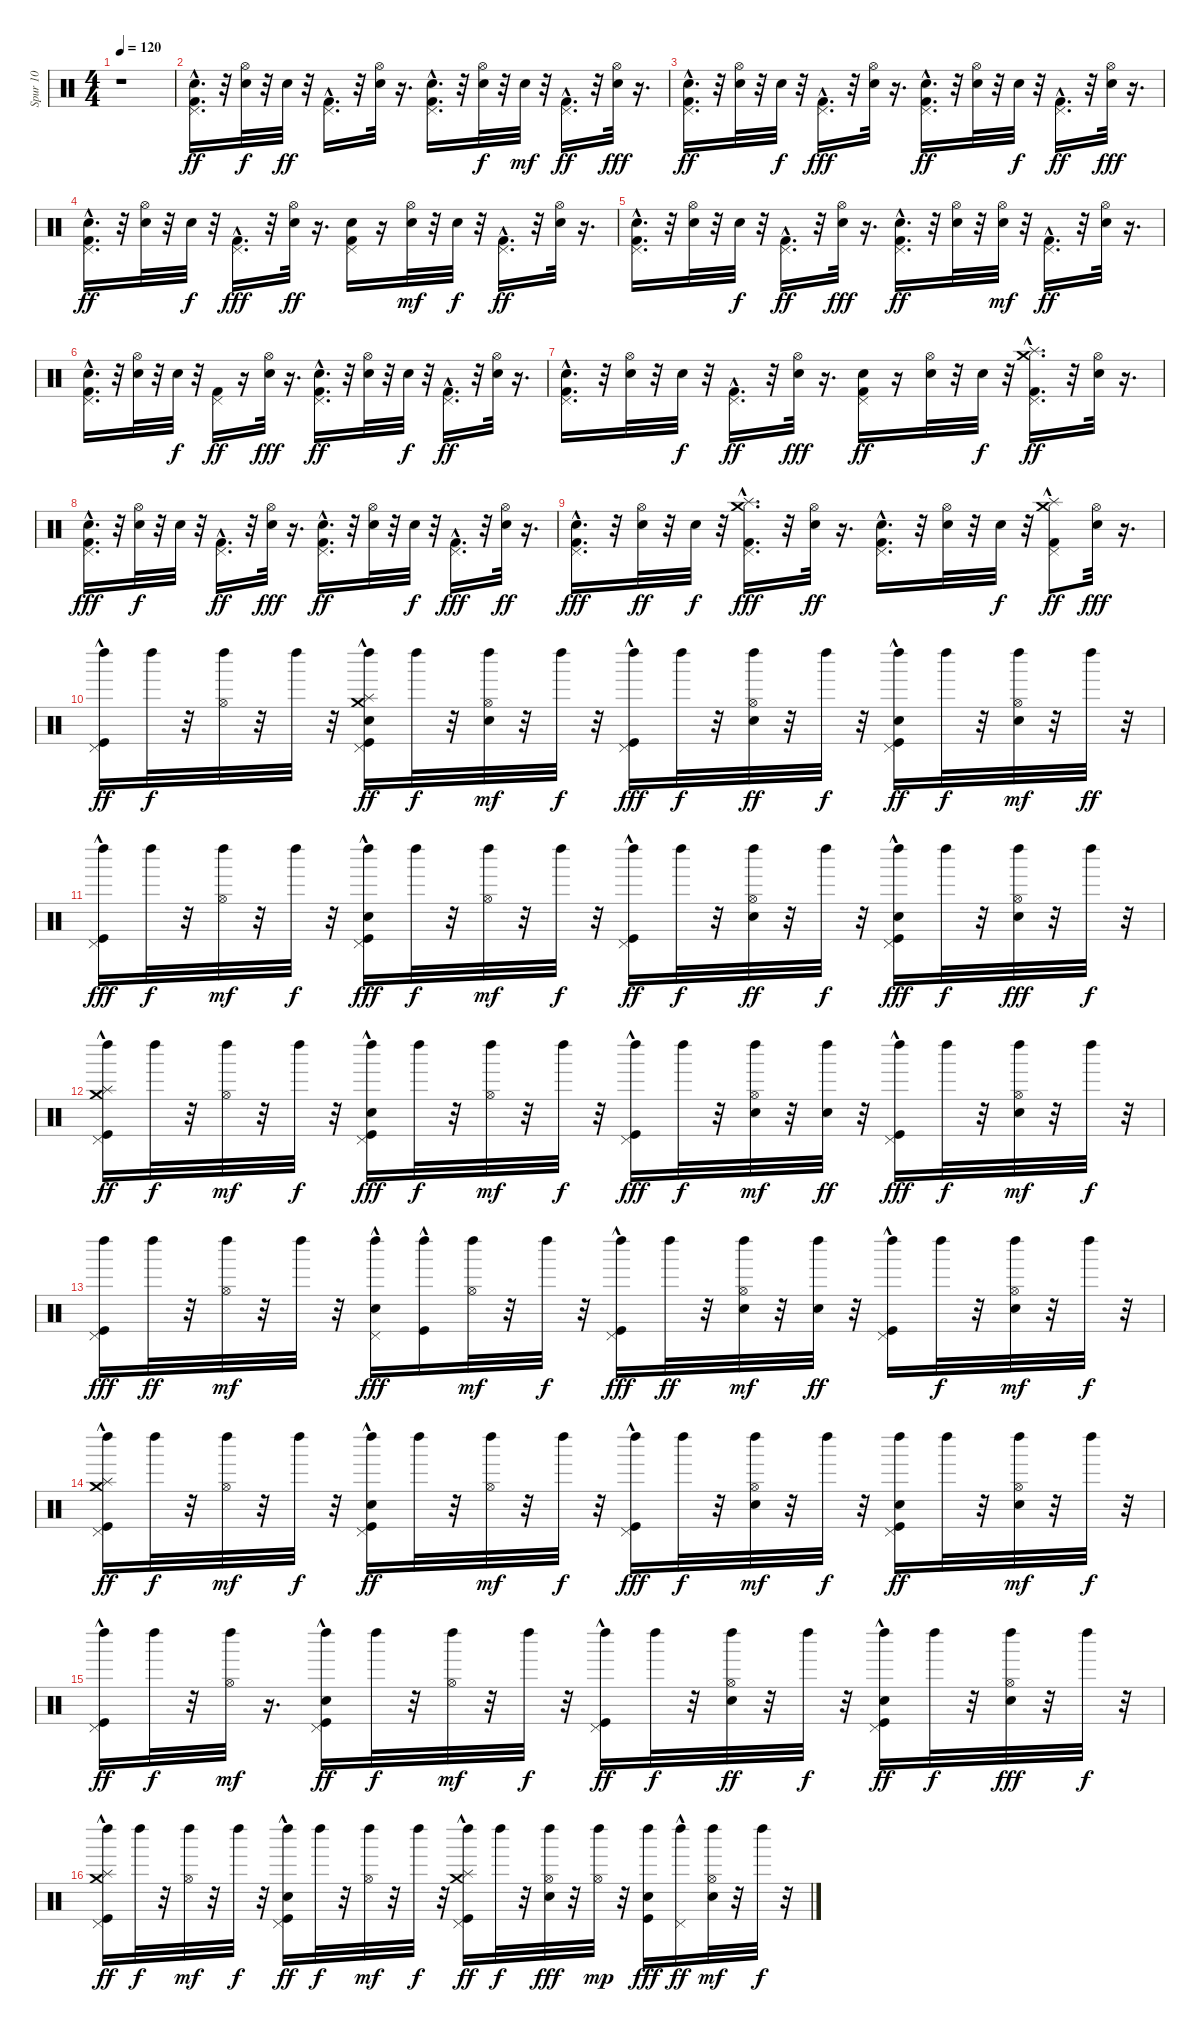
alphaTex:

\track ("Spur 10" "Spur 10") {instrument percussion}
\staff {score}
\articulation defaults
\ts (4 4)
\tempo 120
\clef neutral
\ks c
r.1{dy ff} |
("Electric Snare (hit)" "Kick (hit) 2" "Pedal Hi-Hat (hit)"{hac}).16{d} r.32 ("Electric Snare (hit)" "Hi-Hat (open)").32{dy f} r.32 "Electric Snare (hit)".32{dy ff} r.32 ("Kick (hit) 2"{hac} "Pedal Hi-Hat (hit)"{hac}).16{d} r.32 ("Electric Snare (hit)" "Hi-Hat (open)").32 r.16{d} ("Electric Snare (hit)" "Kick (hit) 2" "Pedal Hi-Hat (hit)"{hac}).16{d} r.32 ("Electric Snare (hit)" "Hi-Hat (open)").32{dy f} r.32 "Electric Snare (hit)".32{dy mf} r.32 ("Kick (hit) 2"{hac} "Pedal Hi-Hat (hit)"{hac}).16{d dy ff} r.32 ("Electric Snare (hit)" "Hi-Hat (open)").32{dy fff} r.16{d} |
("Kick (hit) 2" "Electric Snare (hit)" "Pedal Hi-Hat (hit)"{hac}).16{d dy ff} r.32 ("Electric Snare (hit)" "Hi-Hat (open)").32 r.32 "Electric Snare (hit)".32{dy f} r.32 ("Kick (hit) 2"{hac} "Pedal Hi-Hat (hit)"{hac}).16{d dy fff} r.32 ("Electric Snare (hit)" "Hi-Hat (open)").32 r.16{d} ("Kick (hit) 2" "Electric Snare (hit)" "Pedal Hi-Hat (hit)"{hac}).16{d dy ff} r.32 ("Electric Snare (hit)" "Hi-Hat (open)").32 r.32 "Electric Snare (hit)".32{dy f} r.32 ("Kick (hit) 2"{hac} "Pedal Hi-Hat (hit)"{hac}).16{d dy ff} r.32 ("Electric Snare (hit)" "Hi-Hat (open)").32{dy fff} r.16{d} |
("Electric Snare (hit)" "Kick (hit) 2" "Pedal Hi-Hat (hit)"{hac}).16{d dy ff} r.32 ("Electric Snare (hit)" "Hi-Hat (open)").32 r.32 "Electric Snare (hit)".32{dy f} r.32 ("Kick (hit) 2"{hac} "Pedal Hi-Hat (hit)"{hac}).16{d dy fff} r.32 ("Electric Snare (hit)" "Hi-Hat (open)").32{dy ff} r.16{d} ("Electric Snare (hit)" "Kick (hit) 2" "Pedal Hi-Hat (hit)").16 r.16 ("Electric Snare (hit)" "Hi-Hat (open)").32{dy mf} r.32 "Electric Snare (hit)".32{dy f} r.32 ("Kick (hit) 2"{hac} "Pedal Hi-Hat (hit)"{hac}).16{d dy ff} r.32 ("Electric Snare (hit)" "Hi-Hat (open)").32 r.16{d} |
("Electric Snare (hit)" "Kick (hit) 2" "Pedal Hi-Hat (hit)"{hac}).16{d} r.32 ("Electric Snare (hit)" "Hi-Hat (open)").32 r.32 "Electric Snare (hit)".32{dy f} r.32 ("Kick (hit) 2"{hac} "Pedal Hi-Hat (hit)"{hac}).16{d dy ff} r.32 ("Electric Snare (hit)" "Hi-Hat (open)").32{dy fff} r.16{d} ("Kick (hit) 2" "Electric Snare (hit)" "Pedal Hi-Hat (hit)"{hac}).16{d dy ff} r.32 ("Electric Snare (hit)" "Hi-Hat (open)").32 r.32 ("Electric Snare (hit)" "Hi-Hat (open)").32{dy mf} r.32 ("Kick (hit) 2" "Pedal Hi-Hat (hit)"{hac}).16{d dy ff} r.32 ("Electric Snare (hit)" "Hi-Hat (open)").32 r.16{d} |
("Electric Snare (hit)" "Kick (hit) 2" "Pedal Hi-Hat (hit)"{hac}).16{d} r.32 ("Electric Snare (hit)" "Hi-Hat (open)").32 r.32 "Electric Snare (hit)".32{dy f} r.32 ("Kick (hit) 2" "Pedal Hi-Hat (hit)").16{dy ff} r.16 ("Electric Snare (hit)" "Hi-Hat (open)").32{dy fff} r.16{d} ("Kick (hit) 2" "Electric Snare (hit)" "Pedal Hi-Hat (hit)"{hac}).16{d dy ff} r.32 ("Electric Snare (hit)" "Hi-Hat (open)").32 r.32 "Electric Snare (hit)".32{dy f} r.32 ("Kick (hit) 2" "Pedal Hi-Hat (hit)"{hac}).16{d dy ff} r.32 ("Electric Snare (hit)" "Hi-Hat (open)").32 r.16{d} |
("Kick (hit) 2" "Electric Snare (hit)" "Pedal Hi-Hat (hit)"{hac}).16{d} r.32 ("Electric Snare (hit)" "Hi-Hat (open)").32 r.32 "Electric Snare (hit)".32{dy f} r.32 ("Kick (hit) 2"{hac} "Pedal Hi-Hat (hit)"{hac}).16{d dy ff} r.32 ("Electric Snare (hit)" "Hi-Hat (open)").32{dy fff} r.16{d} ("Electric Snare (hit)" "Kick (hit) 2" "Pedal Hi-Hat (hit)").16{dy ff} r.16 ("Electric Snare (hit)" "Hi-Hat (open)").32 r.32 "Electric Snare (hit)".32{dy f} r.32 ("Kick (hit) 2"{hac} "Pedal Hi-Hat (hit)"{hac} "Crash medium (hit)" "Splash (hit)").16{d dy ff} r.32 ("Electric Snare (hit)" "Hi-Hat (open)").32 r.16{d} |
("Electric Snare (hit)" "Kick (hit) 2" "Pedal Hi-Hat (hit)"{hac}).16{d dy fff} r.32 ("Electric Snare (hit)" "Hi-Hat (open)").32{dy f} r.32 "Electric Snare (hit)".32 r.32 ("Kick (hit) 2"{hac} "Pedal Hi-Hat (hit)"{hac}).16{d dy ff} r.32 ("Electric Snare (hit)" "Hi-Hat (open)").32{dy fff} r.16{d} ("Kick (hit) 2" "Electric Snare (hit)" "Pedal Hi-Hat (hit)"{hac}).16{d dy ff} r.32 ("Electric Snare (hit)" "Hi-Hat (open)").32 r.32 "Electric Snare (hit)".32{dy f} r.32 ("Kick (hit) 2"{hac} "Pedal Hi-Hat (hit)"{hac}).16{d dy fff} r.32 ("Electric Snare (hit)" "Hi-Hat (open)").32{dy ff} r.16{d} |
("Electric Snare (hit)" "Kick (hit) 2" "Pedal Hi-Hat (hit)"{hac}).16{d dy fff} r.32 ("Electric Snare (hit)" "Hi-Hat (open)").32{dy ff} r.32 "Electric Snare (hit)".32{dy f} r.32 ("Kick (hit) 2"{hac} "Pedal Hi-Hat (hit)" "Splash (hit)" "Crash medium (hit)").16{d dy fff} r.32 ("Electric Snare (hit)" "Hi-Hat (open)").32{dy ff} r.16{d} ("Electric Snare (hit)" "Kick (hit) 2" "Pedal Hi-Hat (hit)"{hac}).16{d} r.32 ("Electric Snare (hit)" "Hi-Hat (open)").32 r.32 "Electric Snare (hit)".32{dy f} r.32 ("Kick (hit) 2" "Pedal Hi-Hat (hit)"{hac} "Crash medium (hit)" "Splash (hit)").8{dy ff} ("Electric Snare (hit)" "Hi-Hat (open)").32{dy fff} r.16{d} |
("Kick (hit)" "Pedal Hi-Hat (hit)"{hac} "Left Maraca (hit)").16{dy ff} "Left Maraca (hit)".32{dy f} r.32 ("Hi-Hat (open)" "Left Maraca (hit)").32 r.32 "Left Maraca (hit)".32 r.32 ("Snare (hit) 2" "Kick (hit)" "Pedal Hi-Hat (hit)"{hac} "Left Maraca (hit)" "Crash medium (hit)" "Splash (hit)").16{dy ff} "Left Maraca (hit)".32{dy f} r.32 ("Snare (hit) 2" "Hi-Hat (open)" "Left Maraca (hit)").32{dy mf} r.32 "Left Maraca (hit)".32{dy f} r.32 ("Kick (hit)" "Pedal Hi-Hat (hit)"{hac} "Left Maraca (hit)").16{dy fff} "Left Maraca (hit)".32{dy f} r.32 ("Snare (hit) 2" "Hi-Hat (open)" "Left Maraca (hit)").32{dy ff} r.32 "Left Maraca (hit)".32{dy f} r.32 ("Snare (hit) 2" "Kick (hit)" "Pedal Hi-Hat (hit)"{hac} "Left Maraca (hit)").16{dy ff} "Left Maraca (hit)".32{dy f} r.32 ("Snare (hit) 2" "Hi-Hat (open)" "Left Maraca (hit)").32{dy mf} r.32 "Left Maraca (hit)".32{dy ff} r.32 |
("Kick (hit)" "Pedal Hi-Hat (hit)"{hac} "Left Maraca (hit)").16{dy fff} "Left Maraca (hit)".32{dy f} r.32 ("Hi-Hat (open)" "Left Maraca (hit)").32{dy mf} r.32 "Left Maraca (hit)".32{dy f} r.32 ("Snare (hit) 2" "Kick (hit)"{hac} "Pedal Hi-Hat (hit)"{hac} "Left Maraca (hit)").16{dy fff} "Left Maraca (hit)".32{dy f} r.32 ("Hi-Hat (open)" "Left Maraca (hit)").32{dy mf} r.32 "Left Maraca (hit)".32{dy f} r.32 ("Kick (hit)"{hac} "Pedal Hi-Hat (hit)"{hac} "Left Maraca (hit)").16{dy ff} "Left Maraca (hit)".32{dy f} r.32 ("Snare (hit) 2" "Hi-Hat (open)" "Left Maraca (hit)").32{dy ff} r.32 "Left Maraca (hit)".32{dy f} r.32 ("Snare (hit) 2" "Kick (hit)" "Pedal Hi-Hat (hit)"{hac} "Left Maraca (hit)").16{dy fff} "Left Maraca (hit)".32{dy f} r.32 ("Snare (hit) 2" "Hi-Hat (open)" "Left Maraca (hit)").32{dy fff} r.32 "Left Maraca (hit)".32{dy f} r.32 |
("Kick (hit)" "Pedal Hi-Hat (hit)"{hac} "Left Maraca (hit)" "Crash medium (hit)" "Splash (hit)").16{dy ff} "Left Maraca (hit)".32{dy f} r.32 ("Hi-Hat (open)" "Left Maraca (hit)").32{dy mf} r.32 "Left Maraca (hit)".32{dy f} r.32 ("Snare (hit) 2"{hac} "Kick (hit)" "Pedal Hi-Hat (hit)" "Left Maraca (hit)").16{dy fff} "Left Maraca (hit)".32{dy f} r.32 ("Hi-Hat (open)" "Left Maraca (hit)").32{dy mf} r.32 "Left Maraca (hit)".32{dy f} r.32 ("Kick (hit)" "Pedal Hi-Hat (hit)"{hac} "Left Maraca (hit)").16{dy fff} "Left Maraca (hit)".32{dy f} r.32 ("Snare (hit) 2" "Hi-Hat (open)" "Left Maraca (hit)").32{dy mf} r.32 ("Snare (hit) 2" "Left Maraca (hit)").32{dy ff} r.32 ("Kick (hit)"{hac} "Pedal Hi-Hat (hit)"{hac} "Left Maraca (hit)").16{dy fff} "Left Maraca (hit)".32{dy f} r.32 ("Snare (hit) 2" "Hi-Hat (open)" "Left Maraca (hit)").32{dy mf} r.32 "Left Maraca (hit)".32{dy f} r.32 |
("Kick (hit)" "Pedal Hi-Hat (hit)" "Left Maraca (hit)").16{dy fff} "Left Maraca (hit)".32{dy ff} r.32 ("Hi-Hat (open)" "Left Maraca (hit)").32{dy mf} r.32 "Left Maraca (hit)".32 r.32 ("Snare (hit) 2" "Pedal Hi-Hat (hit)"{hac} "Left Maraca (hit)").16{dy fff} ("Kick (hit)"{hac} "Left Maraca (hit)").16 ("Hi-Hat (open)" "Left Maraca (hit)").32{dy mf} r.32 "Left Maraca (hit)".32{dy f} r.32 ("Kick (hit)"{hac} "Pedal Hi-Hat (hit)" "Left Maraca (hit)").16{dy fff} "Left Maraca (hit)".32{dy ff} r.32 ("Snare (hit) 2" "Hi-Hat (open)" "Left Maraca (hit)").32{dy mf} r.32 ("Snare (hit) 2" "Left Maraca (hit)").32{dy ff} r.32 ("Kick (hit)"{hac} "Pedal Hi-Hat (hit)"{hac} "Left Maraca (hit)").16 "Left Maraca (hit)".32{dy f} r.32 ("Snare (hit) 2" "Hi-Hat (open)" "Left Maraca (hit)").32{dy mf} r.32 "Left Maraca (hit)".32{dy f} r.32 |
("Kick (hit)" "Pedal Hi-Hat (hit)"{hac} "Left Maraca (hit)" "Crash medium (hit)" "Splash (hit)").16{dy ff} "Left Maraca (hit)".32{dy f} r.32 ("Hi-Hat (open)" "Left Maraca (hit)").32{dy mf} r.32 "Left Maraca (hit)".32{dy f} r.32 ("Snare (hit) 2"{hac} "Kick (hit)" "Pedal Hi-Hat (hit)" "Left Maraca (hit)").16{dy ff} "Left Maraca (hit)".32 r.32 ("Hi-Hat (open)" "Left Maraca (hit)").32{dy mf} r.32 "Left Maraca (hit)".32{dy f} r.32 ("Kick (hit)"{hac} "Pedal Hi-Hat (hit)"{hac} "Left Maraca (hit)").16{dy fff} "Left Maraca (hit)".32{dy f} r.32 ("Snare (hit) 2" "Hi-Hat (open)" "Left Maraca (hit)").32{dy mf} r.32 "Left Maraca (hit)".32{dy f} r.32 ("Kick (hit)" "Snare (hit) 2" "Pedal Hi-Hat (hit)" "Left Maraca (hit)").16{dy ff} "Left Maraca (hit)".32 r.32 ("Snare (hit) 2" "Hi-Hat (open)" "Left Maraca (hit)").32{dy mf} r.32 "Left Maraca (hit)".32{dy f} r.32 |
("Kick (hit)" "Pedal Hi-Hat (hit)"{hac} "Left Maraca (hit)").16{dy ff} "Left Maraca (hit)".32{dy f} r.32 ("Hi-Hat (open)" "Left Maraca (hit)").32{dy mf} r.16{d} ("Snare (hit) 2" "Kick (hit)"{hac} "Pedal Hi-Hat (hit)"{hac} "Left Maraca (hit)").16{dy ff} "Left Maraca (hit)".32{dy f} r.32 ("Hi-Hat (open)" "Left Maraca (hit)").32{dy mf} r.32 "Left Maraca (hit)".32{dy f} r.32 ("Kick (hit)"{hac} "Pedal Hi-Hat (hit)"{hac} "Left Maraca (hit)").16{dy ff} "Left Maraca (hit)".32{dy f} r.32 ("Snare (hit) 2" "Hi-Hat (open)" "Left Maraca (hit)").32{dy ff} r.32 "Left Maraca (hit)".32{dy f} r.32 ("Kick (hit)" "Snare (hit) 2" "Pedal Hi-Hat (hit)"{hac} "Left Maraca (hit)").16{dy ff} "Left Maraca (hit)".32{dy f} r.32 ("Snare (hit) 2" "Hi-Hat (open)" "Left Maraca (hit)").32{dy fff} r.32 "Left Maraca (hit)".32{dy f} r.32 |
("Kick (hit)" "Pedal Hi-Hat (hit)"{hac} "Left Maraca (hit)" "Crash medium (hit)" "Splash (hit)").16{dy ff} "Left Maraca (hit)".32{dy f} r.32 ("Hi-Hat (open)" "Left Maraca (hit)").32{dy mf} r.32 "Left Maraca (hit)".32{dy f} r.32 ("Snare (hit) 2"{hac} "Kick (hit)"{hac} "Pedal Hi-Hat (hit)"{hac} "Left Maraca (hit)").16{dy ff} "Left Maraca (hit)".32{dy f} r.32 ("Hi-Hat (open)" "Left Maraca (hit)").32{dy mf} r.32 "Left Maraca (hit)".32{dy f} r.32 ("Kick (hit)"{hac} "Pedal Hi-Hat (hit)"{hac} "Left Maraca (hit)" "Crash medium (hit)" "Splash (hit)").16{dy ff} "Left Maraca (hit)".32{dy f} r.32 ("Snare (hit) 2" "Hi-Hat (open)" "Left Maraca (hit)").32{dy fff} r.32 ("Hi-Hat (open)" "Left Maraca (hit)").32{dy mp} r.32 ("Kick (hit)" "Snare (hit) 2" "Left Maraca (hit)").16{dy fff} ("Pedal Hi-Hat (hit)"{hac} "Left Maraca (hit)").16{dy ff} ("Snare (hit) 2" "Hi-Hat (open)" "Left Maraca (hit)").32{dy mf} r.32 "Left Maraca (hit)".32{dy f} r.32
